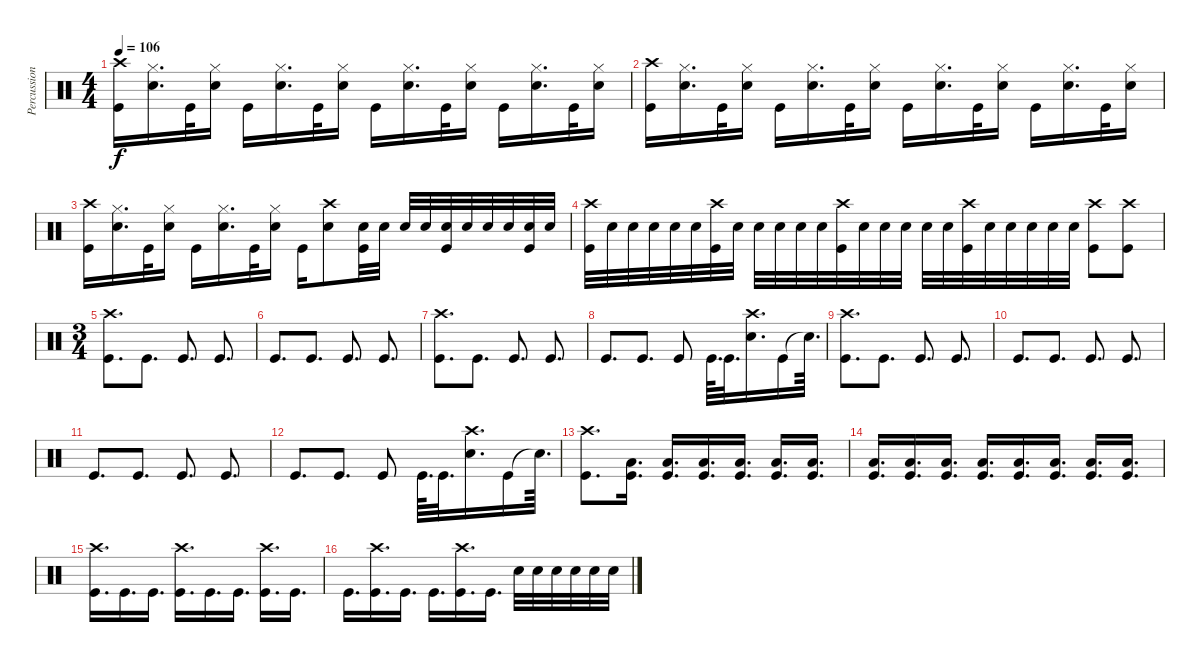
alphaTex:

\track ("Percussion" "Percussion") {instrument percussion}
\staff {score}
\articulation defaults
\ts (4 4)
\tempo 106
\clef neutral
\ks c
("Crash high (hit)" "Kick (hit)").16{dy f} ("Hi-Hat (closed)" "Electric Snare (hit)").16{d} "Kick (hit)".32 ("Hi-Hat (closed)" "Electric Snare (hit)").16 "Kick (hit)".16 ("Hi-Hat (closed)" "Electric Snare (hit)").16{d} "Kick (hit)".32 ("Hi-Hat (closed)" "Electric Snare (hit)").16 "Kick (hit)".16 ("Hi-Hat (closed)" "Electric Snare (hit)").16{d} "Kick (hit)".32 ("Hi-Hat (closed)" "Electric Snare (hit)").16 "Kick (hit)".16 ("Hi-Hat (closed)" "Electric Snare (hit)").16{d} "Kick (hit)".32 ("Hi-Hat (closed)" "Electric Snare (hit)").16 |
("Crash high (hit)" "Kick (hit)").16 ("Hi-Hat (closed)" "Electric Snare (hit)").16{d} "Kick (hit)".32 ("Hi-Hat (closed)" "Electric Snare (hit)").16 "Kick (hit)".16 ("Hi-Hat (closed)" "Electric Snare (hit)").16{d} "Kick (hit)".32 ("Hi-Hat (closed)" "Electric Snare (hit)").16 "Kick (hit)".16 ("Hi-Hat (closed)" "Electric Snare (hit)").16{d} "Kick (hit)".32 ("Hi-Hat (closed)" "Electric Snare (hit)").16 "Kick (hit)".16 ("Hi-Hat (closed)" "Electric Snare (hit)").16{d} "Kick (hit)".32 ("Hi-Hat (closed)" "Electric Snare (hit)").16 |
("Crash high (hit)" "Kick (hit)").16 ("Hi-Hat (closed)" "Electric Snare (hit)").16{d} "Kick (hit)".32 ("Hi-Hat (closed)" "Electric Snare (hit)").16 "Kick (hit)".16 ("Hi-Hat (closed)" "Electric Snare (hit)").16{d} "Kick (hit)".32 ("Hi-Hat (closed)" "Electric Snare (hit)").16 "Kick (hit)".16 ("Crash high (hit)" "Electric Snare (hit)").8 ("Electric Snare (hit)" "Kick (hit)").32 "Electric Snare (hit)".32 "Electric Snare (hit)".32 "Electric Snare (hit)".32 ("Electric Snare (hit)" "Kick (hit)").32 "Electric Snare (hit)".32 "Electric Snare (hit)".32 "Electric Snare (hit)".32 ("Electric Snare (hit)" "Kick (hit)").32 "Electric Snare (hit)".32 |
("Crash high (hit)" "Kick (hit)").32 "Electric Snare (hit)".32 "Electric Snare (hit)".32 "Electric Snare (hit)".32 "Electric Snare (hit)".32 "Electric Snare (hit)".32 ("Crash high (hit)" "Kick (hit)").32 "Electric Snare (hit)".32 "Electric Snare (hit)".32 "Electric Snare (hit)".32 "Electric Snare (hit)".32 "Electric Snare (hit)".32 ("Crash high (hit)" "Kick (hit)").32 "Electric Snare (hit)".32 "Electric Snare (hit)".32 "Electric Snare (hit)".32 "Electric Snare (hit)".32 "Electric Snare (hit)".32 ("Crash high (hit)" "Kick (hit)").32 "Electric Snare (hit)".32 "Electric Snare (hit)".32 "Electric Snare (hit)".32 "Electric Snare (hit)".32 "Electric Snare (hit)".32 ("Crash high (hit)" "Kick (hit)").8 ("Crash high (hit)" "Kick (hit)").8 |
\ts (3 4)
("Crash high (hit)" "Kick (hit)").8{d} "Kick (hit)".8{d} "Kick (hit)".8{d} "Kick (hit)".8{d} |
"Kick (hit)".8{d} "Kick (hit)".8{d} "Kick (hit)".8{d} "Kick (hit)".8{d} |
("Crash high (hit)" "Kick (hit)").8{d} "Kick (hit)".8{d} "Kick (hit)".8{d} "Kick (hit)".8{d} |
"Kick (hit)".8{d} "Kick (hit)".8{d} "Kick (hit)".8 "Kick (hit)".64{d} "Kick (hit)".32{d} ("Crash high (hit)" "Electric Snare (hit)").16{d} "Kick (hit)".16 "Snare (hit)"{t}.64{d} |
("Crash high (hit)" "Kick (hit)").8{d} "Kick (hit)".8{d} "Kick (hit)".8{d} "Kick (hit)".8{d} |
"Kick (hit)".8{d} "Kick (hit)".8{d} "Kick (hit)".8{d} "Kick (hit)".8{d} |
"Kick (hit)".8{d} "Kick (hit)".8{d} "Kick (hit)".8{d} "Kick (hit)".8{d} |
"Kick (hit)".8{d} "Kick (hit)".8{d} "Kick (hit)".8 "Kick (hit)".64{d} "Kick (hit)".32{d} ("Crash high (hit)" "Electric Snare (hit)").16{d} "Kick (hit)".16 "Snare (hit)"{t}.64{d} |
("Crash high (hit)" "Kick (hit)").8{d} ("Low Floor Tom (hit)" "Kick (hit)").16{d} ("Low Floor Tom (hit)" "Kick (hit)").16{d} ("Low Floor Tom (hit)" "Kick (hit)").16{d} ("Low Floor Tom (hit)" "Kick (hit)").16{d} ("Low Floor Tom (hit)" "Kick (hit)").16{d} ("Low Floor Tom (hit)" "Kick (hit)").16{d} |
("Low Floor Tom (hit)" "Kick (hit)").16{d} ("Low Floor Tom (hit)" "Kick (hit)").16{d} ("Low Floor Tom (hit)" "Kick (hit)").16{d} ("Low Floor Tom (hit)" "Kick (hit)").16{d} ("Low Floor Tom (hit)" "Kick (hit)").16{d} ("Low Floor Tom (hit)" "Kick (hit)").16{d} ("Low Floor Tom (hit)" "Kick (hit)").16{d} ("Low Floor Tom (hit)" "Kick (hit)").16{d} |
("Crash high (hit)" "Kick (hit)").16{d} "Kick (hit)".16{d} "Kick (hit)".16{d} ("Crash high (hit)" "Kick (hit)").16{d} "Kick (hit)".16{d} "Kick (hit)".16{d} ("Crash high (hit)" "Kick (hit)").16{d} "Kick (hit)".16{d} |
"Kick (hit)".16{d} ("Crash high (hit)" "Kick (hit)").16{d} "Kick (hit)".16{d} "Kick (hit)".16{d} ("Crash high (hit)" "Kick (hit)").16{d} "Kick (hit)".16{d} "Electric Snare (hit)".32 "Electric Snare (hit)".32 "Electric Snare (hit)".32 "Electric Snare (hit)".32 "Electric Snare (hit)".32 "Electric Snare (hit)".32
